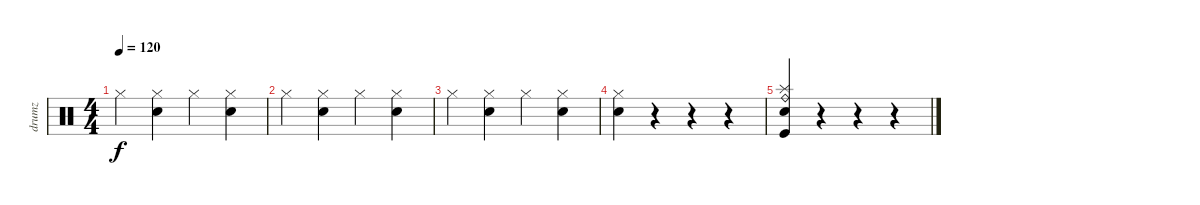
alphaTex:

\track ("drumz" "drumz") {instrument percussion}
\staff {score}
\articulation defaults
\ts (4 4)
\tempo 120
\clef neutral
\ks c "Hi-Hat (closed)".4{dy f}
("Snare (hit) 2" "Hi-Hat (closed)").4 "Hi-Hat (closed)".4 ("Snare (hit) 2" "Hi-Hat (closed)").4 |
"Hi-Hat (closed)".4 ("Snare (hit) 2" "Hi-Hat (closed)").4 "Hi-Hat (closed)".4 ("Snare (hit) 2" "Hi-Hat (closed)").4 |
"Hi-Hat (closed)".4 ("Snare (hit) 2" "Hi-Hat (closed)").4 "Hi-Hat (closed)".4 ("Snare (hit) 2" "Hi-Hat (closed)").4 |
("Snare (hit) 2" "Hi-Hat (closed)").4 r.4 r.4 r.4 |
("Snare (hit) 2" "Ride (bell)" "Splash (hit)" "Kick (hit)").4 r.4 r.4 r.4
